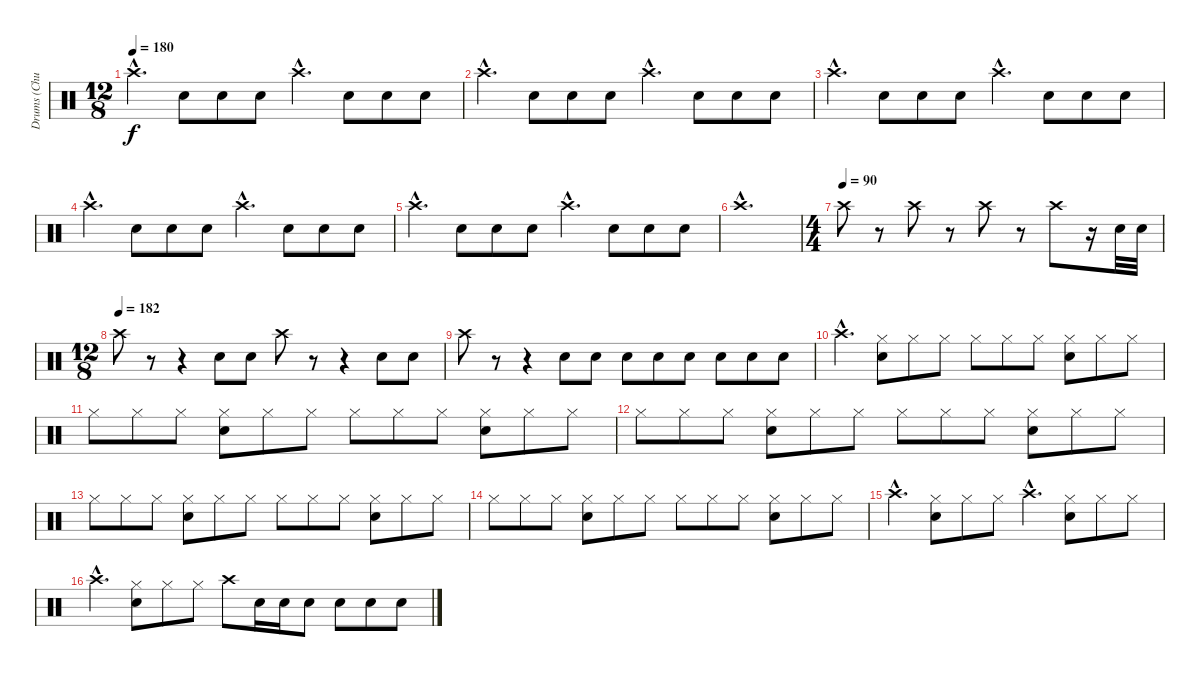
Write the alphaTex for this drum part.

\track ("Drums (Chuck Behler)" "Drums (Chu") {instrument percussion}
\staff {score}
\articulation defaults
\ts (12 8)
\tempo 180
\tempo 182
\tempo 180
\clef neutral
\ks c "Crash high (hit)"{hac}.4{d dy f} "Snare (hit) 2".8 "Snare (hit) 2".8 "Snare (hit) 2".8 "Crash high (hit)"{hac}.4{d} "Snare (hit) 2".8 "Snare (hit) 2".8 "Snare (hit) 2".8
|
"Crash high (hit)"{hac}.4{d} "Snare (hit) 2".8 "Snare (hit) 2".8 "Snare (hit) 2".8 "Crash high (hit)"{hac}.4{d} "Snare (hit) 2".8 "Snare (hit) 2".8 "Snare (hit) 2".8 |
"Crash high (hit)"{hac}.4{d} "Snare (hit) 2".8 "Snare (hit) 2".8 "Snare (hit) 2".8 "Crash high (hit)"{hac}.4{d} "Snare (hit) 2".8 "Snare (hit) 2".8 "Snare (hit) 2".8 |
"Crash high (hit)"{hac}.4{d} "Snare (hit) 2".8 "Snare (hit) 2".8 "Snare (hit) 2".8 "Crash high (hit)"{hac}.4{d} "Snare (hit) 2".8 "Snare (hit) 2".8 "Snare (hit) 2".8 |
"Crash high (hit)"{hac}.4{d} "Snare (hit) 2".8 "Snare (hit) 2".8 "Snare (hit) 2".8 "Crash high (hit)"{hac}.4{d} "Snare (hit) 2".8 "Snare (hit) 2".8 "Snare (hit) 2".8 |
"Crash high (hit)"{hac}.1{d} |
\ts (4 4)
\tempo (90)
"Crash high (hit)".8 r.8 "Crash high (hit)".8 r.8 "Crash high (hit)".8 r.8 "Crash high (hit)".8 r.16 "Snare (hit) 2".32 "Snare (hit) 2".32 |
\ts (12 8)
\tempo (182)
"Crash high (hit)".8 r.8 r.4 "Snare (hit) 2".8 "Snare (hit) 2".8 "Crash high (hit)".8 r.8 r.4 "Snare (hit) 2".8 "Snare (hit) 2".8 |
"Crash high (hit)".8 r.8 r.4 "Snare (hit) 2".8 "Snare (hit) 2".8 "Snare (hit) 2".8 "Snare (hit) 2".8 "Snare (hit) 2".8 "Snare (hit) 2".8 "Snare (hit) 2".8 "Snare (hit) 2".8 |
"Crash high (hit)"{hac}.4{d} ("Hi-Hat (closed)" "Snare (hit) 2").8 "Hi-Hat (closed)".8 "Hi-Hat (closed)".8 "Hi-Hat (closed)".8 "Hi-Hat (closed)".8 "Hi-Hat (closed)".8 ("Hi-Hat (closed)" "Snare (hit) 2").8 "Hi-Hat (closed)".8 "Hi-Hat (closed)".8 |
"Hi-Hat (closed)".8 "Hi-Hat (closed)".8 "Hi-Hat (closed)".8 ("Hi-Hat (closed)" "Snare (hit) 2").8 "Hi-Hat (closed)".8 "Hi-Hat (closed)".8 "Hi-Hat (closed)".8 "Hi-Hat (closed)".8 "Hi-Hat (closed)".8 ("Hi-Hat (closed)" "Snare (hit) 2").8 "Hi-Hat (closed)".8 "Hi-Hat (closed)".8 |
"Hi-Hat (closed)".8 "Hi-Hat (closed)".8 "Hi-Hat (closed)".8 ("Hi-Hat (closed)" "Snare (hit) 2").8 "Hi-Hat (closed)".8 "Hi-Hat (closed)".8 "Hi-Hat (closed)".8 "Hi-Hat (closed)".8 "Hi-Hat (closed)".8 ("Hi-Hat (closed)" "Snare (hit) 2").8 "Hi-Hat (closed)".8 "Hi-Hat (closed)".8 |
"Hi-Hat (closed)".8 "Hi-Hat (closed)".8 "Hi-Hat (closed)".8 ("Hi-Hat (closed)" "Snare (hit) 2").8 "Hi-Hat (closed)".8 "Hi-Hat (closed)".8 "Hi-Hat (closed)".8 "Hi-Hat (closed)".8 "Hi-Hat (closed)".8 ("Hi-Hat (closed)" "Snare (hit) 2").8 "Hi-Hat (closed)".8 "Hi-Hat (closed)".8 |
"Hi-Hat (closed)".8 "Hi-Hat (closed)".8 "Hi-Hat (closed)".8 ("Hi-Hat (closed)" "Snare (hit) 2").8 "Hi-Hat (closed)".8 "Hi-Hat (closed)".8 "Hi-Hat (closed)".8 "Hi-Hat (closed)".8 "Hi-Hat (closed)".8 ("Hi-Hat (closed)" "Snare (hit) 2").8 "Hi-Hat (closed)".8 "Hi-Hat (closed)".8 |
"Crash high (hit)"{hac}.4{d} ("Hi-Hat (closed)" "Snare (hit) 2").8 "Hi-Hat (closed)".8 "Hi-Hat (closed)".8 "Crash high (hit)"{hac}.4{d} ("Hi-Hat (closed)" "Snare (hit) 2").8 "Hi-Hat (closed)".8 "Hi-Hat (closed)".8 |
"Crash high (hit)"{hac}.4{d} ("Hi-Hat (closed)" "Snare (hit) 2").8 "Hi-Hat (closed)".8 "Hi-Hat (closed)".8 "Crash high (hit)".8 "Snare (hit) 2".16 "Snare (hit) 2".16 "Snare (hit) 2".8 "Snare (hit) 2".8 "Snare (hit) 2".8 "Snare (hit) 2".8
